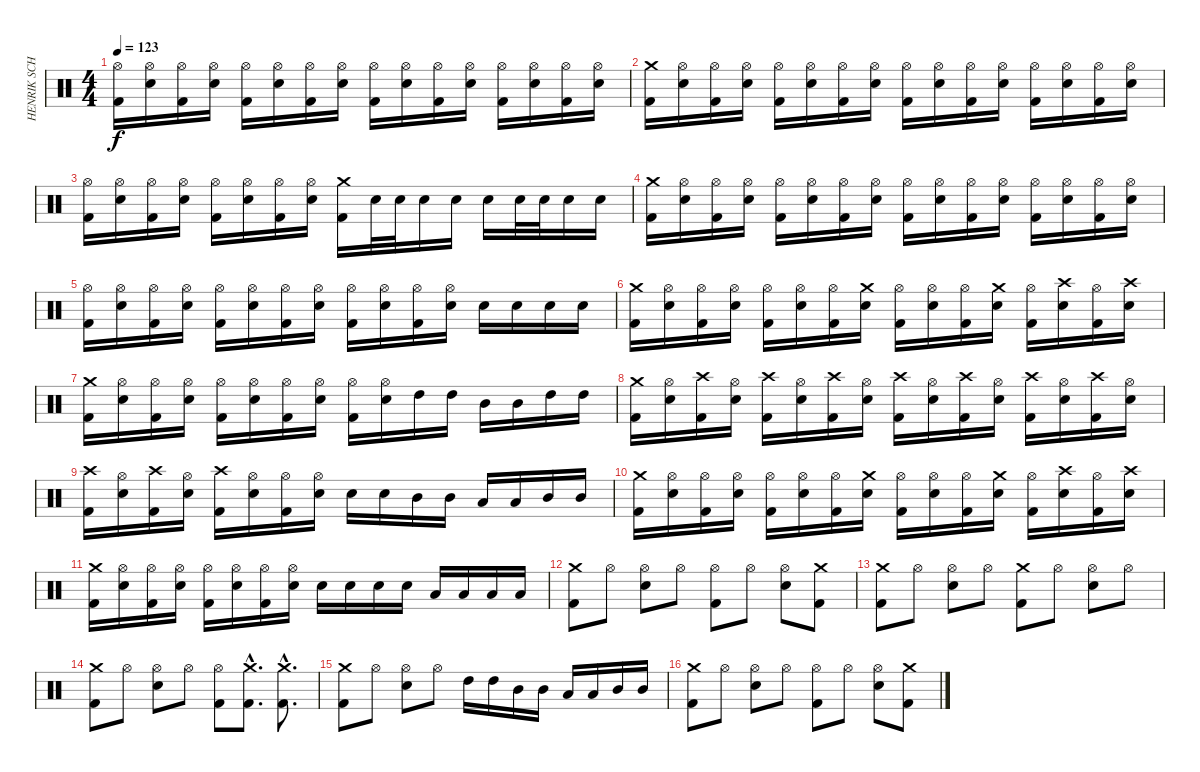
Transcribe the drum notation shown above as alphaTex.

\track ("HENRIK SCHÖNSTÖM " "HENRIK SCH") {instrument percussion}
\staff {score}
\articulation defaults
\ts (4 4)
\tempo 123
\clef neutral
\ks c
("Hi-Hat (open)" "Kick (hit) 2").16{dy f} ("Hi-Hat (open)" "Snare (hit) 2").16 ("Hi-Hat (open)" "Kick (hit) 2").16 ("Hi-Hat (open)" "Snare (hit) 2").16 ("Hi-Hat (open)" "Kick (hit) 2").16 ("Hi-Hat (open)" "Snare (hit) 2").16 ("Hi-Hat (open)" "Kick (hit) 2").16 ("Hi-Hat (open)" "Snare (hit) 2").16 ("Hi-Hat (open)" "Kick (hit) 2").16 ("Hi-Hat (open)" "Snare (hit) 2").16 ("Hi-Hat (open)" "Kick (hit) 2").16 ("Hi-Hat (open)" "Snare (hit) 2").16 ("Hi-Hat (open)" "Kick (hit) 2").16 ("Hi-Hat (open)" "Snare (hit) 2").16 ("Hi-Hat (open)" "Kick (hit) 2").16 ("Hi-Hat (open)" "Snare (hit) 2").16 |
("Crash medium (hit)" "Kick (hit) 2").16 ("Hi-Hat (open)" "Snare (hit) 2").16 ("Hi-Hat (open)" "Kick (hit) 2").16 ("Hi-Hat (open)" "Snare (hit) 2").16 ("Hi-Hat (open)" "Kick (hit) 2").16 ("Hi-Hat (open)" "Snare (hit) 2").16 ("Hi-Hat (open)" "Kick (hit) 2").16 ("Hi-Hat (open)" "Snare (hit) 2").16 ("Hi-Hat (open)" "Kick (hit) 2").16 ("Hi-Hat (open)" "Snare (hit) 2").16 ("Hi-Hat (open)" "Kick (hit) 2").16 ("Hi-Hat (open)" "Snare (hit) 2").16 ("Hi-Hat (open)" "Kick (hit) 2").16 ("Hi-Hat (open)" "Snare (hit) 2").16 ("Hi-Hat (open)" "Kick (hit) 2").16 ("Hi-Hat (open)" "Snare (hit) 2").16 |
("Hi-Hat (open)" "Kick (hit) 2").16 ("Hi-Hat (open)" "Snare (hit) 2").16 ("Hi-Hat (open)" "Kick (hit) 2").16 ("Hi-Hat (open)" "Snare (hit) 2").16 ("Hi-Hat (open)" "Kick (hit) 2").16 ("Hi-Hat (open)" "Snare (hit) 2").16 ("Hi-Hat (open)" "Kick (hit) 2").16 ("Hi-Hat (open)" "Snare (hit) 2").16 ("Crash medium (hit)" "Kick (hit) 2").16 "Snare (hit) 2".32 "Snare (hit) 2".32 "Snare (hit) 2".16 "Snare (hit) 2".16 "Snare (hit) 2".16 "Snare (hit) 2".32 "Snare (hit) 2".32 "Snare (hit) 2".16 "Snare (hit) 2".16 |
("Crash medium (hit)" "Kick (hit) 2").16 ("Hi-Hat (open)" "Snare (hit) 2").16 ("Hi-Hat (open)" "Kick (hit) 2").16 ("Hi-Hat (open)" "Snare (hit) 2").16 ("Hi-Hat (open)" "Kick (hit) 2").16 ("Hi-Hat (open)" "Snare (hit) 2").16 ("Hi-Hat (open)" "Kick (hit) 2").16 ("Hi-Hat (open)" "Snare (hit) 2").16 ("Hi-Hat (open)" "Kick (hit) 2").16 ("Hi-Hat (open)" "Snare (hit) 2").16 ("Hi-Hat (open)" "Kick (hit) 2").16 ("Hi-Hat (open)" "Snare (hit) 2").16 ("Hi-Hat (open)" "Kick (hit) 2").16 ("Hi-Hat (open)" "Snare (hit) 2").16 ("Hi-Hat (open)" "Kick (hit) 2").16 ("Hi-Hat (open)" "Snare (hit) 2").16 |
("Hi-Hat (open)" "Kick (hit) 2").16 ("Hi-Hat (open)" "Snare (hit) 2").16 ("Hi-Hat (open)" "Kick (hit) 2").16 ("Hi-Hat (open)" "Snare (hit) 2").16 ("Hi-Hat (open)" "Kick (hit) 2").16 ("Hi-Hat (open)" "Snare (hit) 2").16 ("Hi-Hat (open)" "Kick (hit) 2").16 ("Hi-Hat (open)" "Snare (hit) 2").16 ("Hi-Hat (open)" "Kick (hit) 2").16 ("Hi-Hat (open)" "Snare (hit) 2").16 ("Hi-Hat (open)" "Kick (hit) 2").16 ("Hi-Hat (open)" "Snare (hit) 2").16 "Snare (hit) 2".16 "Snare (hit) 2".16 "Snare (hit) 2".16 "Snare (hit) 2".16 |
("Crash medium (hit)" "Kick (hit) 2").16 ("Hi-Hat (open)" "Snare (hit) 2").16 ("Hi-Hat (open)" "Kick (hit) 2").16 ("Hi-Hat (open)" "Snare (hit) 2").16 ("Hi-Hat (open)" "Kick (hit) 2").16 ("Hi-Hat (open)" "Snare (hit) 2").16 ("Hi-Hat (open)" "Kick (hit) 2").16 ("Crash medium (hit)" "Snare (hit) 2").16 ("Hi-Hat (open)" "Kick (hit) 2").16 ("Hi-Hat (open)" "Snare (hit) 2").16 ("Hi-Hat (open)" "Kick (hit) 2").16 ("Crash medium (hit)" "Snare (hit) 2").16 ("Hi-Hat (open)" "Kick (hit) 2").16 ("Crash high (hit)" "Snare (hit) 2").16 ("Hi-Hat (open)" "Kick (hit) 2").16 ("Crash high (hit)" "Snare (hit) 2").16 |
("Crash medium (hit)" "Kick (hit) 2").16 ("Hi-Hat (open)" "Snare (hit) 2").16 ("Hi-Hat (open)" "Kick (hit) 2").16 ("Hi-Hat (open)" "Snare (hit) 2").16 ("Hi-Hat (open)" "Kick (hit) 2").16 ("Hi-Hat (open)" "Snare (hit) 2").16 ("Hi-Hat (open)" "Kick (hit) 2").16 ("Hi-Hat (open)" "Snare (hit) 2").16 ("Hi-Hat (open)" "Kick (hit) 2").16 ("Hi-Hat (open)" "Snare (hit) 2").16 "High Tom (hit)".16 "High Tom (hit)".16 "Mid Tom (hit)".16 "Mid Tom (hit)".16 "High Tom (hit)".16 "High Tom (hit)".16 |
("Crash medium (hit)" "Kick (hit) 2").16 ("Hi-Hat (open)" "Snare (hit) 2").16 ("Crash high (hit)" "Kick (hit) 2").16 ("Hi-Hat (open)" "Snare (hit) 2").16 ("Crash high (hit)" "Kick (hit) 2").16 ("Hi-Hat (open)" "Snare (hit) 2").16 ("Crash high (hit)" "Kick (hit) 2").16 ("Hi-Hat (open)" "Snare (hit) 2").16 ("Crash high (hit)" "Kick (hit) 2").16 ("Hi-Hat (open)" "Snare (hit) 2").16 ("Crash high (hit)" "Kick (hit) 2").16 ("Hi-Hat (open)" "Snare (hit) 2").16 ("Crash high (hit)" "Kick (hit) 2").16 ("Hi-Hat (open)" "Snare (hit) 2").16 ("Crash high (hit)" "Kick (hit) 2").16 ("Hi-Hat (open)" "Snare (hit) 2").16 |
("Crash high (hit)" "Kick (hit) 2").16 ("Hi-Hat (open)" "Snare (hit) 2").16 ("Crash high (hit)" "Kick (hit) 2").16 ("Hi-Hat (open)" "Snare (hit) 2").16 ("Crash high (hit)" "Kick (hit) 2").16 ("Hi-Hat (open)" "Snare (hit) 2").16 ("Hi-Hat (open)" "Kick (hit) 2").16 ("Hi-Hat (open)" "Snare (hit) 2").16 "Snare (hit) 2".16 "Snare (hit) 2".16 "Mid Tom (hit)".16 "Mid Tom (hit)".16 "Low Tom (hit)".16 "Low Tom (hit)".16 "Mid Tom (hit)".16 "Mid Tom (hit)".16 |
("Crash medium (hit)" "Kick (hit) 2").16 ("Hi-Hat (open)" "Snare (hit) 2").16 ("Hi-Hat (open)" "Kick (hit) 2").16 ("Hi-Hat (open)" "Snare (hit) 2").16 ("Hi-Hat (open)" "Kick (hit) 2").16 ("Hi-Hat (open)" "Snare (hit) 2").16 ("Hi-Hat (open)" "Kick (hit) 2").16 ("Crash medium (hit)" "Snare (hit) 2").16 ("Hi-Hat (open)" "Kick (hit) 2").16 ("Hi-Hat (open)" "Snare (hit) 2").16 ("Hi-Hat (open)" "Kick (hit) 2").16 ("Crash medium (hit)" "Snare (hit) 2").16 ("Hi-Hat (open)" "Kick (hit) 2").16 ("Crash high (hit)" "Snare (hit) 2").16 ("Hi-Hat (open)" "Kick (hit) 2").16 ("Crash high (hit)" "Snare (hit) 2").16 |
("Crash medium (hit)" "Kick (hit) 2").16 ("Hi-Hat (open)" "Snare (hit) 2").16 ("Hi-Hat (open)" "Kick (hit) 2").16 ("Hi-Hat (open)" "Snare (hit) 2").16 ("Hi-Hat (open)" "Kick (hit) 2").16 ("Hi-Hat (open)" "Snare (hit) 2").16 ("Hi-Hat (open)" "Kick (hit) 2").16 ("Hi-Hat (open)" "Snare (hit) 2").16 "Snare (hit) 2".16 "Snare (hit) 2".16 "Snare (hit) 2".16 "Snare (hit) 2".16 "Low Tom (hit)".16 "Low Tom (hit)".16 "Low Tom (hit)".16 "Low Tom (hit)".16 |
("Crash medium (hit)" "Kick (hit) 2").8 "Hi-Hat (open)".8 ("Hi-Hat (open)" "Snare (hit) 2").8 "Hi-Hat (open)".8 ("Hi-Hat (open)" "Kick (hit) 2").8 "Hi-Hat (open)".8 ("Hi-Hat (open)" "Snare (hit) 2").8 ("Crash medium (hit)" "Kick (hit) 2").8 |
("Crash medium (hit)" "Kick (hit) 2").8 "Hi-Hat (open)".8 ("Hi-Hat (open)" "Snare (hit) 2").8 "Hi-Hat (open)".8 ("Crash medium (hit)" "Kick (hit) 2").8 "Hi-Hat (open)".8 ("Hi-Hat (open)" "Snare (hit) 2").8 "Hi-Hat (open)".8 |
("Crash medium (hit)" "Kick (hit) 2").8 "Hi-Hat (open)".8 ("Hi-Hat (open)" "Snare (hit) 2").8 "Hi-Hat (open)".8 ("Hi-Hat (open)" "Kick (hit) 2").8 ("Crash medium (hit)"{hac} "Kick (hit) 2"{hac}).8{d} ("Crash medium (hit)"{hac} "Kick (hit) 2"{hac}).8{d} |
("Crash medium (hit)" "Kick (hit) 2").8 "Hi-Hat (open)".8 ("Hi-Hat (open)" "Snare (hit) 2").8 "Hi-Hat (open)".8 "High Tom (hit)".16 "High Tom (hit)".16 "Mid Tom (hit)".16 "Mid Tom (hit)".16 "Low Tom (hit)".16 "Low Tom (hit)".16 "Mid Tom (hit)".16 "Mid Tom (hit)".16 |
("Crash medium (hit)" "Kick (hit) 2").8 "Hi-Hat (open)".8 ("Hi-Hat (open)" "Snare (hit) 2").8 "Hi-Hat (open)".8 ("Hi-Hat (open)" "Kick (hit) 2").8 "Hi-Hat (open)".8 ("Hi-Hat (open)" "Snare (hit) 2").8 ("Crash medium (hit)" "Kick (hit) 2").8
